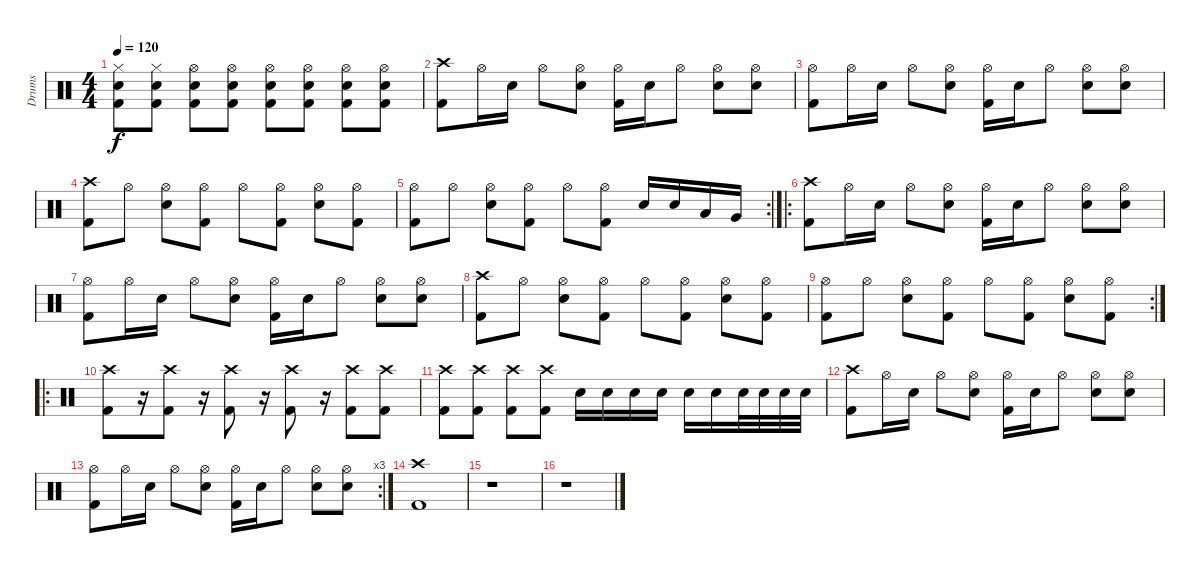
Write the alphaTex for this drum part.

\track ("Drums" "Drums") {instrument percussion}
\staff {score}
\articulation defaults
\ts (4 4)
\tempo 120
\clef neutral
\ks c
("Hi-Hat (closed)" "Electric Snare (hit)" "Kick (hit) 2").8{dy f} ("Hi-Hat (closed)" "Electric Snare (hit)" "Kick (hit) 2").8 ("Hi-Hat (open)" "Electric Snare (hit)" "Kick (hit) 2").8 ("Hi-Hat (open)" "Electric Snare (hit)" "Kick (hit) 2").8 ("Hi-Hat (open)" "Electric Snare (hit)" "Kick (hit) 2").8 ("Hi-Hat (open)" "Electric Snare (hit)" "Kick (hit) 2").8 ("Hi-Hat (open)" "Electric Snare (hit)" "Kick (hit) 2").8 ("Hi-Hat (open)" "Electric Snare (hit)" "Kick (hit) 2").8 |
("Crash high (hit)" "Kick (hit) 2").8 "Hi-Hat (open)".16 "Electric Snare (hit)".16 "Hi-Hat (open)".8 ("Hi-Hat (open)" "Electric Snare (hit)").8 ("Hi-Hat (open)" "Kick (hit) 2").16 "Electric Snare (hit)".16 "Hi-Hat (open)".8 ("Hi-Hat (open)" "Electric Snare (hit)").8 ("Hi-Hat (open)" "Electric Snare (hit)").8 |
("Hi-Hat (open)" "Kick (hit) 2").8 "Hi-Hat (open)".16 "Electric Snare (hit)".16 "Hi-Hat (open)".8 ("Hi-Hat (open)" "Electric Snare (hit)").8 ("Hi-Hat (open)" "Kick (hit) 2").16 "Electric Snare (hit)".16 "Hi-Hat (open)".8 ("Hi-Hat (open)" "Electric Snare (hit)").8 ("Hi-Hat (open)" "Electric Snare (hit)").8 |
("Crash high (hit)" "Kick (hit) 2").8 "Hi-Hat (open)".8 ("Hi-Hat (open)" "Electric Snare (hit)").8 ("Hi-Hat (open)" "Kick (hit) 2").8 "Hi-Hat (open)".8 ("Hi-Hat (open)" "Kick (hit) 2").8 ("Hi-Hat (open)" "Electric Snare (hit)").8 ("Hi-Hat (open)" "Kick (hit) 2").8 |
\rc 2
("Hi-Hat (open)" "Kick (hit) 2").8 "Hi-Hat (open)".8 ("Hi-Hat (open)" "Electric Snare (hit)").8 ("Hi-Hat (open)" "Kick (hit) 2").8 "Hi-Hat (open)".8 ("Hi-Hat (open)" "Kick (hit) 2").8 "Electric Snare (hit)".16 "Electric Snare (hit)".16 "Low Tom (hit)".16 "Very Low Tom (hit)".16 |
\ro
("Crash high (hit)" "Kick (hit) 2").8 "Hi-Hat (open)".16 "Electric Snare (hit)".16 "Hi-Hat (open)".8 ("Hi-Hat (open)" "Electric Snare (hit)").8 ("Hi-Hat (open)" "Kick (hit) 2").16 "Electric Snare (hit)".16 "Hi-Hat (open)".8 ("Hi-Hat (open)" "Electric Snare (hit)").8 ("Hi-Hat (open)" "Electric Snare (hit)").8 |
("Hi-Hat (open)" "Kick (hit) 2").8 "Hi-Hat (open)".16 "Electric Snare (hit)".16 "Hi-Hat (open)".8 ("Hi-Hat (open)" "Electric Snare (hit)").8 ("Hi-Hat (open)" "Kick (hit) 2").16 "Electric Snare (hit)".16 "Hi-Hat (open)".8 ("Hi-Hat (open)" "Electric Snare (hit)").8 ("Hi-Hat (open)" "Electric Snare (hit)").8 |
("Crash high (hit)" "Kick (hit) 2").8 "Hi-Hat (open)".8 ("Hi-Hat (open)" "Electric Snare (hit)").8 ("Hi-Hat (open)" "Kick (hit) 2").8 "Hi-Hat (open)".8 ("Hi-Hat (open)" "Kick (hit) 2").8 ("Hi-Hat (open)" "Electric Snare (hit)").8 ("Hi-Hat (open)" "Kick (hit) 2").8 |
\rc 2
("Hi-Hat (open)" "Kick (hit) 2").8 "Hi-Hat (open)".8 ("Hi-Hat (open)" "Electric Snare (hit)").8 ("Hi-Hat (open)" "Kick (hit) 2").8 "Hi-Hat (open)".8 ("Hi-Hat (open)" "Kick (hit) 2").8 ("Hi-Hat (open)" "Electric Snare (hit)").8 ("Hi-Hat (open)" "Kick (hit) 2").8 |
\ro
("Crash high (hit)" "Kick (hit) 2").8 r.16 ("Crash high (hit)" "Kick (hit) 2").8 r.16 ("Crash high (hit)" "Kick (hit) 2").8 r.16 ("Crash high (hit)" "Kick (hit) 2").8 r.16 ("Crash high (hit)" "Kick (hit) 2").8 ("Crash high (hit)" "Kick (hit) 2").8 |
("Crash high (hit)" "Kick (hit) 2").8 ("Crash high (hit)" "Kick (hit) 2").8 ("Crash high (hit)" "Kick (hit) 2").8 ("Crash high (hit)" "Kick (hit) 2").8 "Electric Snare (hit)".16 "Electric Snare (hit)".16 "Electric Snare (hit)".16 "Electric Snare (hit)".16 "Electric Snare (hit)".16 "Electric Snare (hit)".16 "Electric Snare (hit)".32 "Electric Snare (hit)".32 "Electric Snare (hit)".32 "Electric Snare (hit)".32 |
("Crash high (hit)" "Kick (hit) 2").8 "Hi-Hat (open)".16 "Electric Snare (hit)".16 "Hi-Hat (open)".8 ("Hi-Hat (open)" "Electric Snare (hit)").8 ("Hi-Hat (open)" "Kick (hit) 2").16 "Electric Snare (hit)".16 "Hi-Hat (open)".8 ("Hi-Hat (open)" "Electric Snare (hit)").8 ("Hi-Hat (open)" "Electric Snare (hit)").8 |
\rc 3
("Hi-Hat (open)" "Kick (hit) 2").8 "Hi-Hat (open)".16 "Electric Snare (hit)".16 "Hi-Hat (open)".8 ("Hi-Hat (open)" "Electric Snare (hit)").8 ("Hi-Hat (open)" "Kick (hit) 2").16 "Electric Snare (hit)".16 "Hi-Hat (open)".8 ("Hi-Hat (open)" "Electric Snare (hit)").8 ("Hi-Hat (open)" "Electric Snare (hit)").8 |
("Crash high (hit)" "Kick (hit) 2").1 |
r.1 |
r.1
